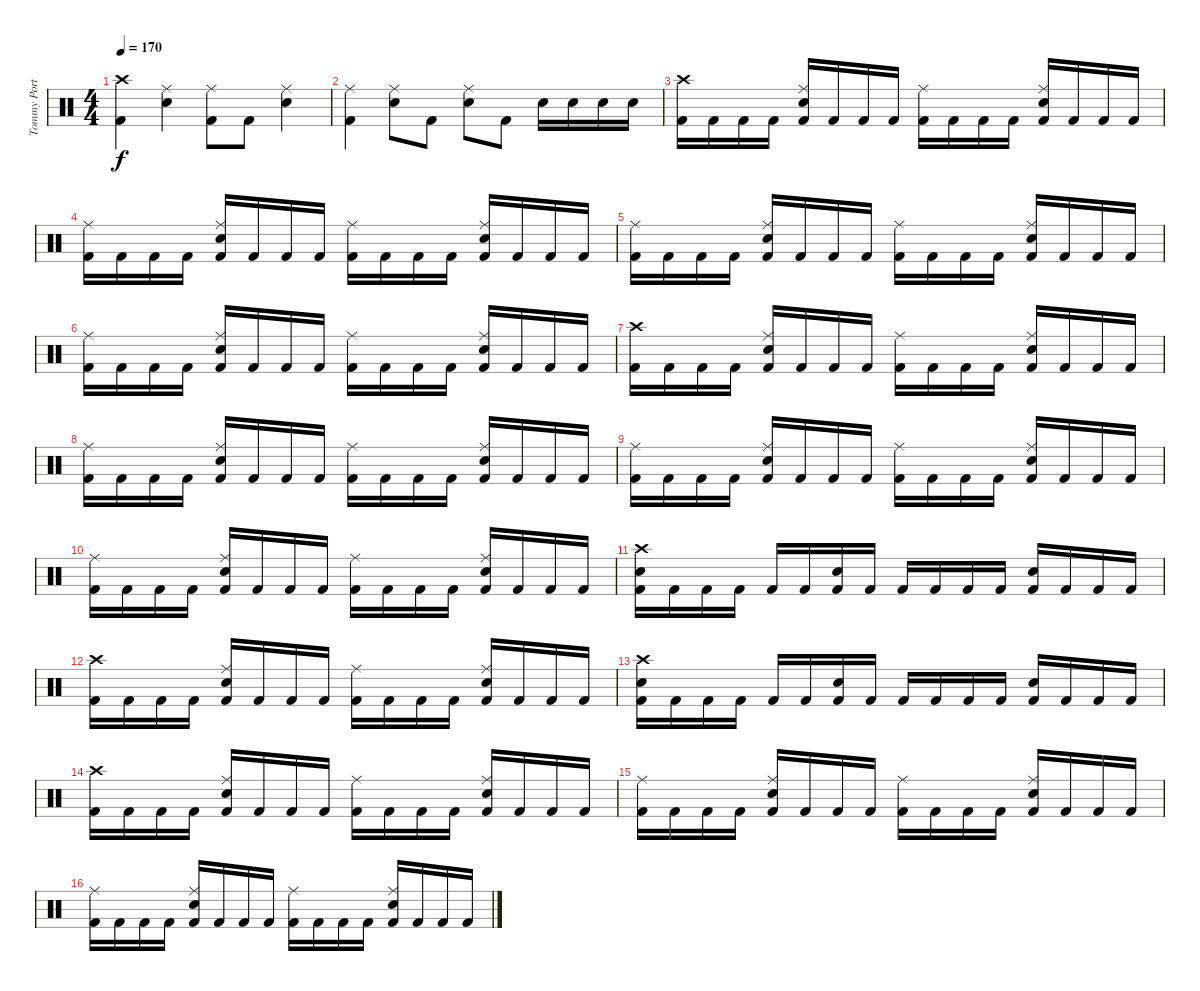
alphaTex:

\track ("Tommy Portino" "Tommy Port") {instrument percussion}
\staff {score}
\articulation defaults
\ts (4 4)
\tempo 170
\clef neutral
\ks c
("Crash high (hit)" "Kick (hit) 2").4{dy f} ("Ride (middle)" "Electric Snare (hit)").4 ("Ride (middle)" "Kick (hit) 2").8 "Kick (hit) 2".8 ("Ride (middle)" "Electric Snare (hit)").4 |
("Ride (middle)" "Kick (hit) 2").4 ("Ride (middle)" "Electric Snare (hit)").8 "Kick (hit) 2".8 ("Ride (middle)" "Electric Snare (hit)").8 "Kick (hit) 2".8 "Electric Snare (hit)".16 "Electric Snare (hit)".16 "Electric Snare (hit)".16 "Electric Snare (hit)".16 |
("Crash high (hit)" "Kick (hit) 2").16 "Kick (hit) 2".16 "Kick (hit) 2".16 "Kick (hit) 2".16 ("Ride (middle)" "Electric Snare (hit)" "Kick (hit) 2").16 "Kick (hit) 2".16 "Kick (hit) 2".16 "Kick (hit) 2".16 ("Ride (middle)" "Kick (hit) 2").16 "Kick (hit) 2".16 "Kick (hit) 2".16 "Kick (hit) 2".16 ("Ride (middle)" "Electric Snare (hit)" "Kick (hit) 2").16 "Kick (hit) 2".16 "Kick (hit) 2".16 "Kick (hit) 2".16 |
("Ride (middle)" "Kick (hit) 2").16 "Kick (hit) 2".16 "Kick (hit) 2".16 "Kick (hit) 2".16 ("Ride (middle)" "Electric Snare (hit)" "Kick (hit) 2").16 "Kick (hit) 2".16 "Kick (hit) 2".16 "Kick (hit) 2".16 ("Ride (middle)" "Kick (hit) 2").16 "Kick (hit) 2".16 "Kick (hit) 2".16 "Kick (hit) 2".16 ("Ride (middle)" "Electric Snare (hit)" "Kick (hit) 2").16 "Kick (hit) 2".16 "Kick (hit) 2".16 "Kick (hit) 2".16 |
("Ride (middle)" "Kick (hit) 2").16 "Kick (hit) 2".16 "Kick (hit) 2".16 "Kick (hit) 2".16 ("Ride (middle)" "Electric Snare (hit)" "Kick (hit) 2").16 "Kick (hit) 2".16 "Kick (hit) 2".16 "Kick (hit) 2".16 ("Ride (middle)" "Kick (hit) 2").16 "Kick (hit) 2".16 "Kick (hit) 2".16 "Kick (hit) 2".16 ("Ride (middle)" "Electric Snare (hit)" "Kick (hit) 2").16 "Kick (hit) 2".16 "Kick (hit) 2".16 "Kick (hit) 2".16 |
("Ride (middle)" "Kick (hit) 2").16 "Kick (hit) 2".16 "Kick (hit) 2".16 "Kick (hit) 2".16 ("Ride (middle)" "Electric Snare (hit)" "Kick (hit) 2").16 "Kick (hit) 2".16 "Kick (hit) 2".16 "Kick (hit) 2".16 ("Ride (middle)" "Kick (hit) 2").16 "Kick (hit) 2".16 "Kick (hit) 2".16 "Kick (hit) 2".16 ("Ride (middle)" "Electric Snare (hit)" "Kick (hit) 2").16 "Kick (hit) 2".16 "Kick (hit) 2".16 "Kick (hit) 2".16 |
("Crash high (hit)" "Kick (hit) 2").16 "Kick (hit) 2".16 "Kick (hit) 2".16 "Kick (hit) 2".16 ("Ride (middle)" "Electric Snare (hit)" "Kick (hit) 2").16 "Kick (hit) 2".16 "Kick (hit) 2".16 "Kick (hit) 2".16 ("Ride (middle)" "Kick (hit) 2").16 "Kick (hit) 2".16 "Kick (hit) 2".16 "Kick (hit) 2".16 ("Ride (middle)" "Electric Snare (hit)" "Kick (hit) 2").16 "Kick (hit) 2".16 "Kick (hit) 2".16 "Kick (hit) 2".16 |
("Ride (middle)" "Kick (hit) 2").16 "Kick (hit) 2".16 "Kick (hit) 2".16 "Kick (hit) 2".16 ("Ride (middle)" "Electric Snare (hit)" "Kick (hit) 2").16 "Kick (hit) 2".16 "Kick (hit) 2".16 "Kick (hit) 2".16 ("Ride (middle)" "Kick (hit) 2").16 "Kick (hit) 2".16 "Kick (hit) 2".16 "Kick (hit) 2".16 ("Ride (middle)" "Electric Snare (hit)" "Kick (hit) 2").16 "Kick (hit) 2".16 "Kick (hit) 2".16 "Kick (hit) 2".16 |
("Ride (middle)" "Kick (hit) 2").16 "Kick (hit) 2".16 "Kick (hit) 2".16 "Kick (hit) 2".16 ("Ride (middle)" "Electric Snare (hit)" "Kick (hit) 2").16 "Kick (hit) 2".16 "Kick (hit) 2".16 "Kick (hit) 2".16 ("Ride (middle)" "Kick (hit) 2").16 "Kick (hit) 2".16 "Kick (hit) 2".16 "Kick (hit) 2".16 ("Ride (middle)" "Electric Snare (hit)" "Kick (hit) 2").16 "Kick (hit) 2".16 "Kick (hit) 2".16 "Kick (hit) 2".16 |
("Ride (middle)" "Kick (hit) 2").16 "Kick (hit) 2".16 "Kick (hit) 2".16 "Kick (hit) 2".16 ("Ride (middle)" "Electric Snare (hit)" "Kick (hit) 2").16 "Kick (hit) 2".16 "Kick (hit) 2".16 "Kick (hit) 2".16 ("Ride (middle)" "Kick (hit) 2").16 "Kick (hit) 2".16 "Kick (hit) 2".16 "Kick (hit) 2".16 ("Ride (middle)" "Electric Snare (hit)" "Kick (hit) 2").16 "Kick (hit) 2".16 "Kick (hit) 2".16 "Kick (hit) 2".16 |
("Crash high (hit)" "Electric Snare (hit)" "Kick (hit) 2").16 "Kick (hit) 2".16 "Kick (hit) 2".16 "Kick (hit) 2".16 "Kick (hit) 2".16 "Kick (hit) 2".16 ("Electric Snare (hit)" "Kick (hit) 2").16 "Kick (hit) 2".16 "Kick (hit) 2".16 "Kick (hit) 2".16 "Kick (hit) 2".16 "Kick (hit) 2".16 ("Electric Snare (hit)" "Kick (hit) 2").16 "Kick (hit) 2".16 "Kick (hit) 2".16 "Kick (hit) 2".16 |
("Crash high (hit)" "Kick (hit) 2").16 "Kick (hit) 2".16 "Kick (hit) 2".16 "Kick (hit) 2".16 ("Ride (middle)" "Electric Snare (hit)" "Kick (hit) 2").16 "Kick (hit) 2".16 "Kick (hit) 2".16 "Kick (hit) 2".16 ("Ride (middle)" "Kick (hit) 2").16 "Kick (hit) 2".16 "Kick (hit) 2".16 "Kick (hit) 2".16 ("Ride (middle)" "Electric Snare (hit)" "Kick (hit) 2").16 "Kick (hit) 2".16 "Kick (hit) 2".16 "Kick (hit) 2".16 |
("Crash high (hit)" "Electric Snare (hit)" "Kick (hit) 2").16 "Kick (hit) 2".16 "Kick (hit) 2".16 "Kick (hit) 2".16 "Kick (hit) 2".16 "Kick (hit) 2".16 ("Electric Snare (hit)" "Kick (hit) 2").16 "Kick (hit) 2".16 "Kick (hit) 2".16 "Kick (hit) 2".16 "Kick (hit) 2".16 "Kick (hit) 2".16 ("Electric Snare (hit)" "Kick (hit) 2").16 "Kick (hit) 2".16 "Kick (hit) 2".16 "Kick (hit) 2".16 |
("Crash high (hit)" "Kick (hit) 2").16 "Kick (hit) 2".16 "Kick (hit) 2".16 "Kick (hit) 2".16 ("Ride (middle)" "Electric Snare (hit)" "Kick (hit) 2").16 "Kick (hit) 2".16 "Kick (hit) 2".16 "Kick (hit) 2".16 ("Ride (middle)" "Kick (hit) 2").16 "Kick (hit) 2".16 "Kick (hit) 2".16 "Kick (hit) 2".16 ("Ride (middle)" "Electric Snare (hit)" "Kick (hit) 2").16 "Kick (hit) 2".16 "Kick (hit) 2".16 "Kick (hit) 2".16 |
("Ride (middle)" "Kick (hit) 2").16 "Kick (hit) 2".16 "Kick (hit) 2".16 "Kick (hit) 2".16 ("Ride (middle)" "Electric Snare (hit)" "Kick (hit) 2").16 "Kick (hit) 2".16 "Kick (hit) 2".16 "Kick (hit) 2".16 ("Ride (middle)" "Kick (hit) 2").16 "Kick (hit) 2".16 "Kick (hit) 2".16 "Kick (hit) 2".16 ("Ride (middle)" "Electric Snare (hit)" "Kick (hit) 2").16 "Kick (hit) 2".16 "Kick (hit) 2".16 "Kick (hit) 2".16 |
("Ride (middle)" "Kick (hit) 2").16 "Kick (hit) 2".16 "Kick (hit) 2".16 "Kick (hit) 2".16 ("Ride (middle)" "Electric Snare (hit)" "Kick (hit) 2").16 "Kick (hit) 2".16 "Kick (hit) 2".16 "Kick (hit) 2".16 ("Ride (middle)" "Kick (hit) 2").16 "Kick (hit) 2".16 "Kick (hit) 2".16 "Kick (hit) 2".16 ("Ride (middle)" "Electric Snare (hit)" "Kick (hit) 2").16 "Kick (hit) 2".16 "Kick (hit) 2".16 "Kick (hit) 2".16
